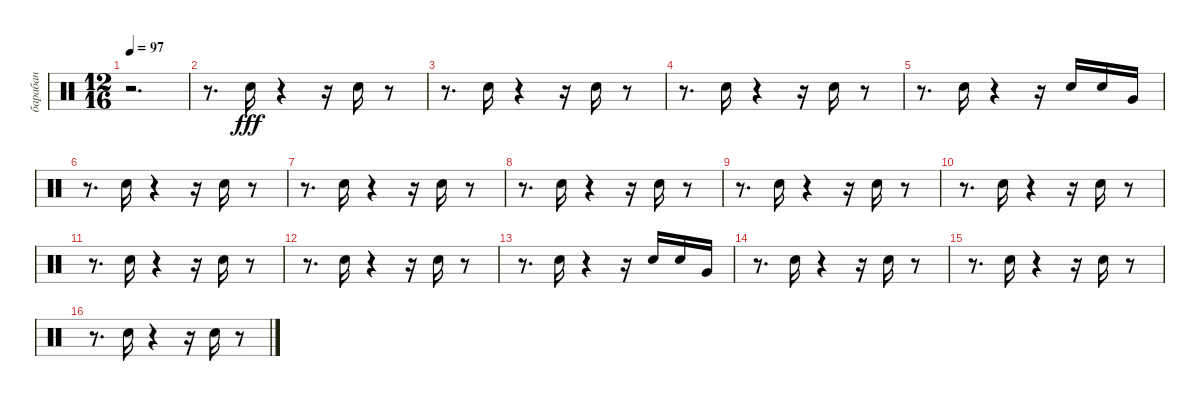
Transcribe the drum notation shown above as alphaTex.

\track ("барабан" "барабан") {instrument percussion}
\staff {score}
\articulation defaults
\ts (12 16)
\tempo 97
\clef neutral
\ks c
r.2{d dy fff} |
r.8{d} "Snare (hit) 2".16 r.4 r.16 "Snare (hit) 2".16 r.8 |
r.8{d} "Snare (hit) 2".16 r.4 r.16 "Snare (hit) 2".16 r.8 |
r.8{d} "Snare (hit) 2".16 r.4 r.16 "Snare (hit) 2".16 r.8 |
r.8{d} "Snare (hit) 2".16 r.4 r.16 "Snare (hit) 2".16 "Snare (hit) 2".16 "Very Low Tom (hit)".16 |
r.8{d} "Snare (hit) 2".16 r.4 r.16 "Snare (hit) 2".16 r.8 |
r.8{d} "Snare (hit) 2".16 r.4 r.16 "Snare (hit) 2".16 r.8 |
r.8{d} "Snare (hit) 2".16 r.4 r.16 "Snare (hit) 2".16 r.8 |
r.8{d} "Snare (hit) 2".16 r.4 r.16 "Snare (hit) 2".16 r.8 |
r.8{d} "Snare (hit) 2".16 r.4 r.16 "Snare (hit) 2".16 r.8 |
r.8{d} "Snare (hit) 2".16 r.4 r.16 "Snare (hit) 2".16 r.8 |
r.8{d} "Snare (hit) 2".16 r.4 r.16 "Snare (hit) 2".16 r.8 |
r.8{d} "Snare (hit) 2".16 r.4 r.16 "Snare (hit) 2".16 "Snare (hit) 2".16 "Very Low Tom (hit)".16 |
r.8{d} "Snare (hit) 2".16 r.4 r.16 "Snare (hit) 2".16 r.8 |
r.8{d} "Snare (hit) 2".16 r.4 r.16 "Snare (hit) 2".16 r.8 |
r.8{d} "Snare (hit) 2".16 r.4 r.16 "Snare (hit) 2".16 r.8
